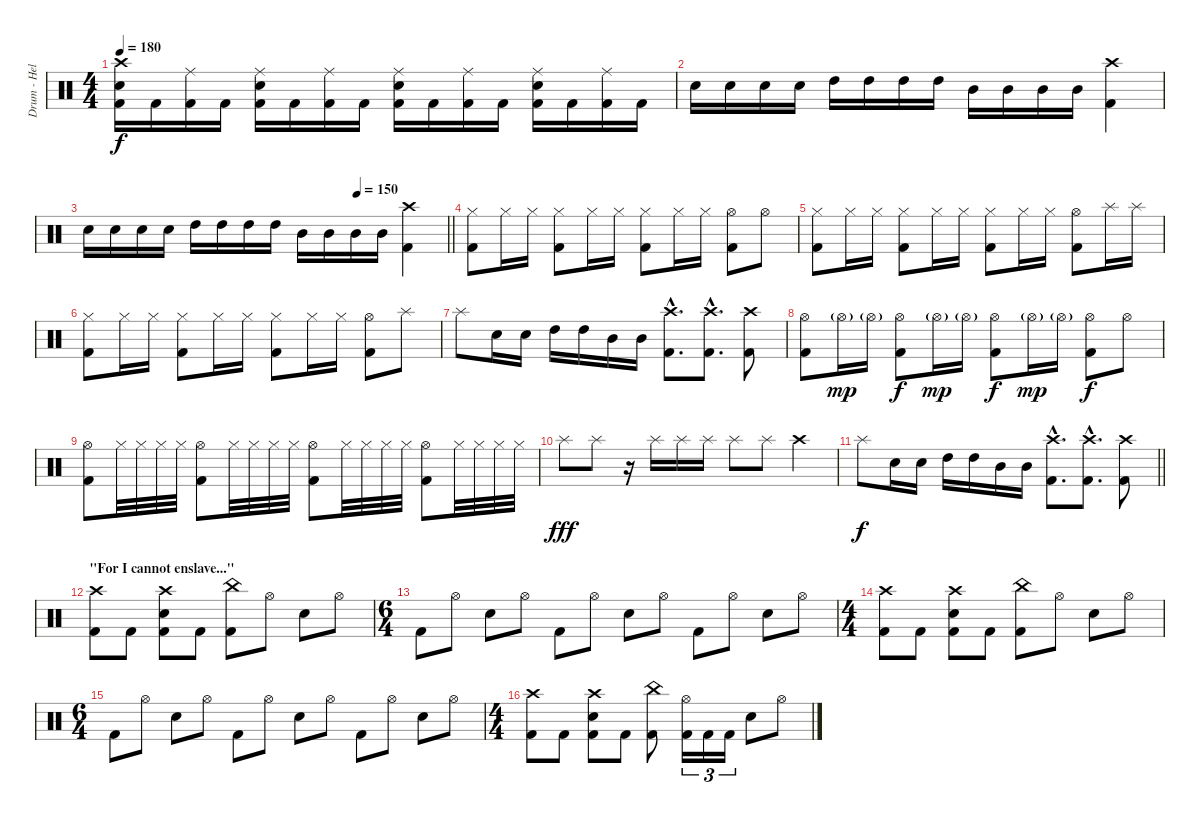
\track ("Drum - Hellhammer" "Drum - Hel") {instrument percussion}
\staff {score}
\articulation defaults
\ts (4 4)
\tempo 180
\clef neutral
\ks c
("Crash high (hit)" "Electric Snare (hit)" "Kick (hit) 2").16{dy f} "Kick (hit) 2".16 ("Ride (middle)" "Kick (hit) 2").16 "Kick (hit) 2".16 ("Ride (middle)" "Electric Snare (hit)" "Kick (hit) 2").16 "Kick (hit) 2".16 ("Ride (middle)" "Kick (hit) 2").16 "Kick (hit) 2".16 ("Ride (middle)" "Electric Snare (hit)" "Kick (hit) 2").16 "Kick (hit) 2".16 ("Ride (middle)" "Kick (hit) 2").16 "Kick (hit) 2".16 ("Ride (middle)" "Electric Snare (hit)" "Kick (hit) 2").16 "Kick (hit) 2".16 ("Ride (middle)" "Kick (hit) 2").16 "Kick (hit) 2".16 |
"Electric Snare (hit)".16 "Electric Snare (hit)".16 "Electric Snare (hit)".16 "Electric Snare (hit)".16 "High Tom (hit)".16 "High Tom (hit)".16 "High Tom (hit)".16 "High Tom (hit)".16 "Mid Tom (hit)".16 "Mid Tom (hit)".16 "Mid Tom (hit)".16 "Mid Tom (hit)".16 ("Crash high (hit)" "Kick (hit) 2").4 |
\tempo (150 0.75)
\barLineRight lightlight "Electric Snare (hit)".16 "Electric Snare (hit)".16 "Electric Snare (hit)".16 "Electric Snare (hit)".16 "High Tom (hit)".16 "High Tom (hit)".16 "High Tom (hit)".16 "High Tom (hit)".16 "Mid Tom (hit)".16 "Mid Tom (hit)".16 "Mid Tom (hit)".16 "Mid Tom (hit)".16
("Crash high (hit)" "Kick (hit) 2").4 |
\section ("" "")
("Hi-Hat (closed)" "Kick (hit) 2").8 "Hi-Hat (closed)".16 "Hi-Hat (closed)".16 ("Hi-Hat (closed)" "Kick (hit) 2").8 "Hi-Hat (closed)".16 "Hi-Hat (closed)".16 ("Hi-Hat (closed)" "Kick (hit) 2").8 "Hi-Hat (closed)".16 "Hi-Hat (closed)".16 ("Hi-Hat (open)" "Kick (hit) 2").8 "Hi-Hat (open)".8 |
("Hi-Hat (closed)" "Kick (hit) 2").8 "Hi-Hat (closed)".16 "Hi-Hat (closed)".16 ("Hi-Hat (closed)" "Kick (hit) 2").8 "Hi-Hat (closed)".16 "Hi-Hat (closed)".16 ("Hi-Hat (closed)" "Kick (hit) 2").8 "Hi-Hat (closed)".16 "Hi-Hat (closed)".16 ("Hi-Hat (open)" "Kick (hit) 2").8 "Splash (hit)".16 "Splash (hit)".16 |
("Hi-Hat (closed)" "Kick (hit) 2").8 "Hi-Hat (closed)".16 "Hi-Hat (closed)".16 ("Hi-Hat (closed)" "Kick (hit) 2").8 "Hi-Hat (closed)".16 "Hi-Hat (closed)".16 ("Hi-Hat (closed)" "Kick (hit) 2").8 "Hi-Hat (closed)".16 "Hi-Hat (closed)".16 ("Hi-Hat (open)" "Kick (hit) 2").8 "Splash (hit)".8 |
"Splash (hit)".8 "Electric Snare (hit)".16 "Electric Snare (hit)".16 "High Tom (hit)".16 "High Tom (hit)".16 "Mid Tom (hit)".16 "Mid Tom (hit)".16 ("Crash high (hit)"{hac} "Kick (hit) 2"{hac}).8{d} ("Crash high (hit)"{hac} "Kick (hit) 2"{hac}).8{d} ("Crash high (hit)" "Kick (hit) 2").8 |
("Hi-Hat (open)" "Kick (hit) 2").8 "Hi-Hat (open)"{g}.16{dy mp} "Hi-Hat (open)"{g}.16 ("Hi-Hat (open)" "Kick (hit) 2").8{dy f} "Hi-Hat (open)"{g}.16{dy mp} "Hi-Hat (open)"{g}.16 ("Hi-Hat (open)" "Kick (hit) 2").8{dy f} "Hi-Hat (open)"{g}.16{dy mp} "Hi-Hat (open)"{g}.16 ("Hi-Hat (open)" "Kick (hit) 2").8{dy f} "Hi-Hat (open)".8 |
("Hi-Hat (open)" "Kick (hit) 2").8 "Hi-Hat (closed)".32 "Hi-Hat (closed)".32 "Hi-Hat (closed)".32 "Hi-Hat (closed)".32 ("Hi-Hat (open)" "Kick (hit) 2").8 "Hi-Hat (closed)".32 "Hi-Hat (closed)".32 "Hi-Hat (closed)".32 "Hi-Hat (closed)".32 ("Hi-Hat (open)" "Kick (hit) 2").8 "Hi-Hat (closed)".32 "Hi-Hat (closed)".32 "Hi-Hat (closed)".32 "Hi-Hat (closed)".32 ("Hi-Hat (open)" "Kick (hit) 2").8 "Hi-Hat (closed)".32 "Hi-Hat (closed)".32 "Hi-Hat (closed)".32 "Hi-Hat (closed)".32 |
"Splash (hit)".8{dy fff} "Splash (hit)".8 r.16 "Splash (hit)".16 "Splash (hit)".16 "Splash (hit)".16 "Splash (hit)".8 "Splash (hit)".8 "Crash high (hit)".4 |
\barLineRight lightlight "Splash (hit)".8{dy f} "Electric Snare (hit)".16 "Electric Snare (hit)".16 "High Tom (hit)".16 "High Tom (hit)".16 "Mid Tom (hit)".16 "Mid Tom (hit)".16
("Crash high (hit)"{hac} "Kick (hit) 2"{hac}).8{d} ("Crash high (hit)"{hac} "Kick (hit) 2"{hac}).8{d} ("Crash high (hit)" "Kick (hit) 2").8 |
\section ("" "\"For I cannot enslave...\"")
("Crash high (hit)" "Kick (hit) 2").8 "Kick (hit) 2".8 ("Crash high (hit)" "Electric Snare (hit)" "Kick (hit) 2").8 "Kick (hit) 2".8 ("China (hit)" "Kick (hit) 2").8 "Hi-Hat (open)".8 "Electric Snare (hit)".8 "Hi-Hat (open)".8 |
\ts (6 4)
"Kick (hit) 2".8 "Hi-Hat (open)".8 "Electric Snare (hit)".8 "Hi-Hat (open)".8 "Kick (hit) 2".8 "Hi-Hat (open)".8 "Electric Snare (hit)".8 "Hi-Hat (open)".8 "Kick (hit) 2".8 "Hi-Hat (open)".8 "Electric Snare (hit)".8 "Hi-Hat (open)".8 |
\ts (4 4)
("Crash high (hit)" "Kick (hit) 2").8 "Kick (hit) 2".8 ("Crash high (hit)" "Electric Snare (hit)" "Kick (hit) 2").8 "Kick (hit) 2".8 ("China (hit)" "Kick (hit) 2").8 "Hi-Hat (open)".8 "Electric Snare (hit)".8 "Hi-Hat (open)".8 |
\ts (6 4)
"Kick (hit) 2".8 "Hi-Hat (open)".8 "Electric Snare (hit)".8 "Hi-Hat (open)".8 "Kick (hit) 2".8 "Hi-Hat (open)".8 "Electric Snare (hit)".8 "Hi-Hat (open)".8 "Kick (hit) 2".8 "Hi-Hat (open)".8 "Electric Snare (hit)".8 "Hi-Hat (open)".8 |
\ts (4 4)
("Crash high (hit)" "Kick (hit) 2").8 "Kick (hit) 2".8 ("Crash high (hit)" "Electric Snare (hit)" "Kick (hit) 2").8 "Kick (hit) 2".8 ("China (hit)" "Kick (hit) 2").8 ("Hi-Hat (open)" "Kick (hit) 2").16{tu (3 2)} "Kick (hit) 2".16{tu (3 2)} "Kick (hit) 2".16{tu (3 2)} "Electric Snare (hit)".8 "Hi-Hat (open)".8
